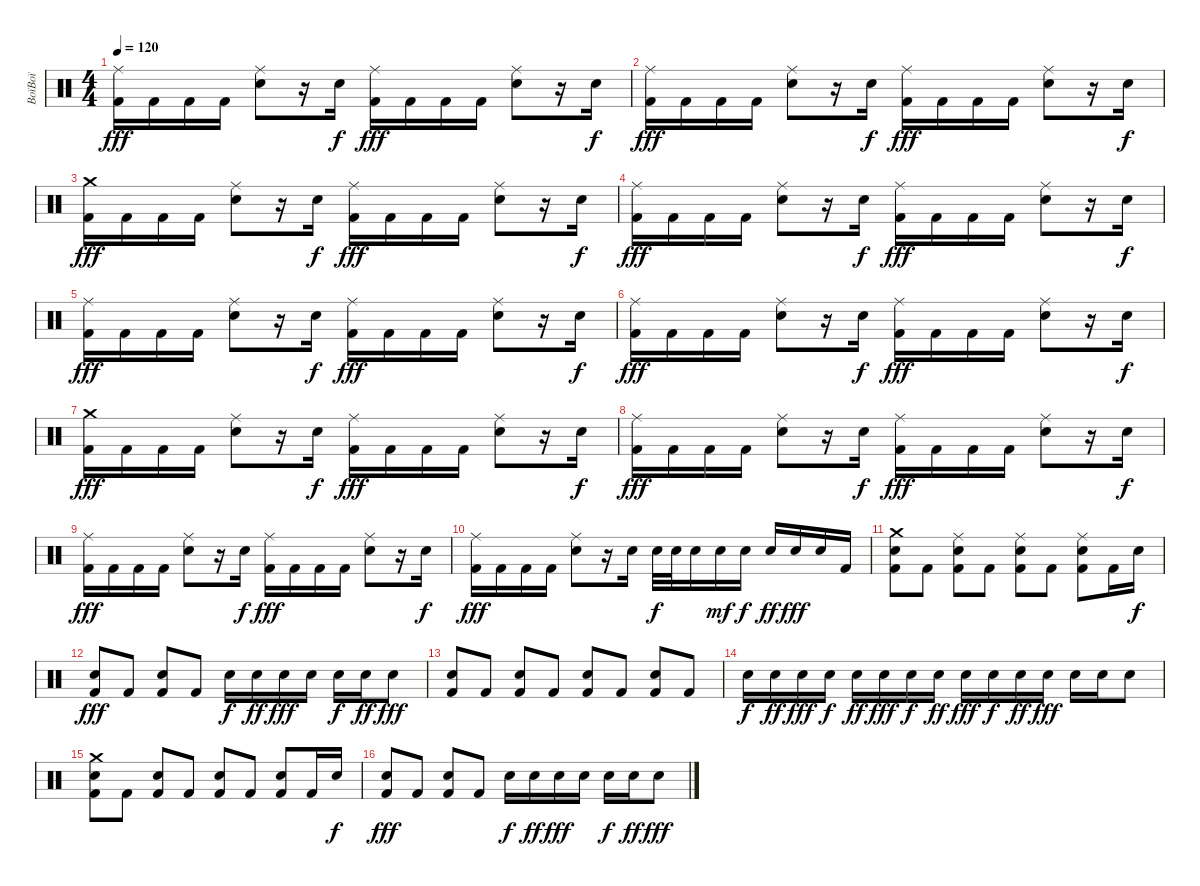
\track ("BoïBoï" "BoïBoï") {instrument percussion}
\staff {score}
\articulation defaults
\ts (4 4)
\tempo 120
\clef neutral
\ks c
("Ride (middle)" "Kick (hit) 2").16{dy fff} "Kick (hit) 2".16 "Kick (hit) 2".16 "Kick (hit) 2".16 ("Ride (middle)" "Electric Snare (hit)").8 r.16 "Electric Snare (hit)".16{dy f} ("Ride (middle)" "Kick (hit) 2").16{dy fff} "Kick (hit) 2".16 "Kick (hit) 2".16 "Kick (hit) 2".16 ("Ride (middle)" "Electric Snare (hit)").8 r.16 "Electric Snare (hit)".16{dy f} |
("Ride (middle)" "Kick (hit) 2").16{dy fff} "Kick (hit) 2".16 "Kick (hit) 2".16 "Kick (hit) 2".16 ("Ride (middle)" "Electric Snare (hit)").8 r.16 "Electric Snare (hit)".16{dy f} ("Ride (middle)" "Kick (hit) 2").16{dy fff} "Kick (hit) 2".16 "Kick (hit) 2".16 "Kick (hit) 2".16 ("Ride (middle)" "Electric Snare (hit)").8 r.16 "Electric Snare (hit)".16{dy f} |
("Crash medium (hit)" "Kick (hit) 2").16{dy fff} "Kick (hit) 2".16 "Kick (hit) 2".16 "Kick (hit) 2".16 ("Ride (middle)" "Electric Snare (hit)").8 r.16 "Electric Snare (hit)".16{dy f} ("Ride (middle)" "Kick (hit) 2").16{dy fff} "Kick (hit) 2".16 "Kick (hit) 2".16 "Kick (hit) 2".16 ("Ride (middle)" "Electric Snare (hit)").8 r.16 "Electric Snare (hit)".16{dy f} |
("Ride (middle)" "Kick (hit) 2").16{dy fff} "Kick (hit) 2".16 "Kick (hit) 2".16 "Kick (hit) 2".16 ("Ride (middle)" "Electric Snare (hit)").8 r.16 "Electric Snare (hit)".16{dy f} ("Ride (middle)" "Kick (hit) 2").16{dy fff} "Kick (hit) 2".16 "Kick (hit) 2".16 "Kick (hit) 2".16 ("Ride (middle)" "Electric Snare (hit)").8 r.16 "Electric Snare (hit)".16{dy f} |
("Ride (middle)" "Kick (hit) 2").16{dy fff} "Kick (hit) 2".16 "Kick (hit) 2".16 "Kick (hit) 2".16 ("Ride (middle)" "Electric Snare (hit)").8 r.16 "Electric Snare (hit)".16{dy f} ("Ride (middle)" "Kick (hit) 2").16{dy fff} "Kick (hit) 2".16 "Kick (hit) 2".16 "Kick (hit) 2".16 ("Ride (middle)" "Electric Snare (hit)").8 r.16 "Electric Snare (hit)".16{dy f} |
("Ride (middle)" "Kick (hit) 2").16{dy fff} "Kick (hit) 2".16 "Kick (hit) 2".16 "Kick (hit) 2".16 ("Ride (middle)" "Electric Snare (hit)").8 r.16 "Electric Snare (hit)".16{dy f} ("Ride (middle)" "Kick (hit) 2").16{dy fff} "Kick (hit) 2".16 "Kick (hit) 2".16 "Kick (hit) 2".16 ("Ride (middle)" "Electric Snare (hit)").8 r.16 "Electric Snare (hit)".16{dy f} |
("Crash medium (hit)" "Kick (hit) 2").16{dy fff} "Kick (hit) 2".16 "Kick (hit) 2".16 "Kick (hit) 2".16 ("Ride (middle)" "Electric Snare (hit)").8 r.16 "Electric Snare (hit)".16{dy f} ("Ride (middle)" "Kick (hit) 2").16{dy fff} "Kick (hit) 2".16 "Kick (hit) 2".16 "Kick (hit) 2".16 ("Ride (middle)" "Electric Snare (hit)").8 r.16 "Electric Snare (hit)".16{dy f} |
("Ride (middle)" "Kick (hit) 2").16{dy fff} "Kick (hit) 2".16 "Kick (hit) 2".16 "Kick (hit) 2".16 ("Ride (middle)" "Electric Snare (hit)").8 r.16 "Electric Snare (hit)".16{dy f} ("Ride (middle)" "Kick (hit) 2").16{dy fff} "Kick (hit) 2".16 "Kick (hit) 2".16 "Kick (hit) 2".16 ("Ride (middle)" "Electric Snare (hit)").8 r.16 "Electric Snare (hit)".16{dy f} |
("Ride (middle)" "Kick (hit) 2").16{dy fff} "Kick (hit) 2".16 "Kick (hit) 2".16 "Kick (hit) 2".16 ("Ride (middle)" "Electric Snare (hit)").8 r.16 "Electric Snare (hit)".16{dy f} ("Ride (middle)" "Kick (hit) 2").16{dy fff} "Kick (hit) 2".16 "Kick (hit) 2".16 "Kick (hit) 2".16 ("Ride (middle)" "Electric Snare (hit)").8 r.16 "Electric Snare (hit)".16{dy f} |
("Ride (middle)" "Kick (hit) 2").16{dy fff} "Kick (hit) 2".16 "Kick (hit) 2".16 "Kick (hit) 2".16 ("Ride (middle)" "Electric Snare (hit)").8 r.16 "Electric Snare (hit)".16 "Electric Snare (hit)".32{dy f} "Electric Snare (hit)".32 "Electric Snare (hit)".16 "Electric Snare (hit)".16{dy mf} "Electric Snare (hit)".16{dy f} "Electric Snare (hit)".16{dy ff} "Electric Snare (hit)".16{dy fff} "Electric Snare (hit)".16 "Kick (hit) 2".16 |
("Crash medium (hit)" "Electric Snare (hit)" "Kick (hit) 2").8 "Kick (hit) 2".8 ("Ride (middle)" "Electric Snare (hit)" "Kick (hit) 2").8 "Kick (hit) 2".8 ("Ride (middle)" "Electric Snare (hit)" "Kick (hit) 2").8 "Kick (hit) 2".8 ("Ride (middle)" "Electric Snare (hit)" "Kick (hit) 2").8 "Kick (hit) 2".16 "Electric Snare (hit)".16{dy f} |
("Electric Snare (hit)" "Kick (hit) 2").8{dy fff} "Kick (hit) 2".8 ("Electric Snare (hit)" "Kick (hit) 2").8 "Kick (hit) 2".8 "Electric Snare (hit)".16{dy f} "Electric Snare (hit)".16{dy ff} "Electric Snare (hit)".16{dy fff} "Electric Snare (hit)".16 "Electric Snare (hit)".16{dy f} "Electric Snare (hit)".16{dy ff} "Electric Snare (hit)".8{dy fff} |
("Electric Snare (hit)" "Kick (hit) 2").8 "Kick (hit) 2".8 ("Electric Snare (hit)" "Kick (hit) 2").8 "Kick (hit) 2".8 ("Electric Snare (hit)" "Kick (hit) 2").8 "Kick (hit) 2".8 ("Electric Snare (hit)" "Kick (hit) 2").8 "Kick (hit) 2".8 |
"Electric Snare (hit)".16{dy f} "Electric Snare (hit)".16{dy ff} "Electric Snare (hit)".16{dy fff} "Electric Snare (hit)".16{dy f} "Electric Snare (hit)".16{dy ff} "Electric Snare (hit)".16{dy fff} "Electric Snare (hit)".16{dy f} "Electric Snare (hit)".16{dy ff} "Electric Snare (hit)".16{dy fff} "Electric Snare (hit)".16{dy f} "Electric Snare (hit)".16{dy ff} "Electric Snare (hit)".16{dy fff} "Electric Snare (hit)".16 "Electric Snare (hit)".16 "Electric Snare (hit)".8 |
("Crash medium (hit)" "Electric Snare (hit)" "Kick (hit) 2").8 "Kick (hit) 2".8 ("Electric Snare (hit)" "Kick (hit) 2").8 "Kick (hit) 2".8 ("Electric Snare (hit)" "Kick (hit) 2").8 "Kick (hit) 2".8 ("Electric Snare (hit)" "Kick (hit) 2").8 "Kick (hit) 2".16 "Electric Snare (hit)".16{dy f} |
("Electric Snare (hit)" "Kick (hit) 2").8{dy fff} "Kick (hit) 2".8 ("Electric Snare (hit)" "Kick (hit) 2").8 "Kick (hit) 2".8 "Electric Snare (hit)".16{dy f} "Electric Snare (hit)".16{dy ff} "Electric Snare (hit)".16{dy fff} "Electric Snare (hit)".16 "Electric Snare (hit)".16{dy f} "Electric Snare (hit)".16{dy ff} "Electric Snare (hit)".8{dy fff}
